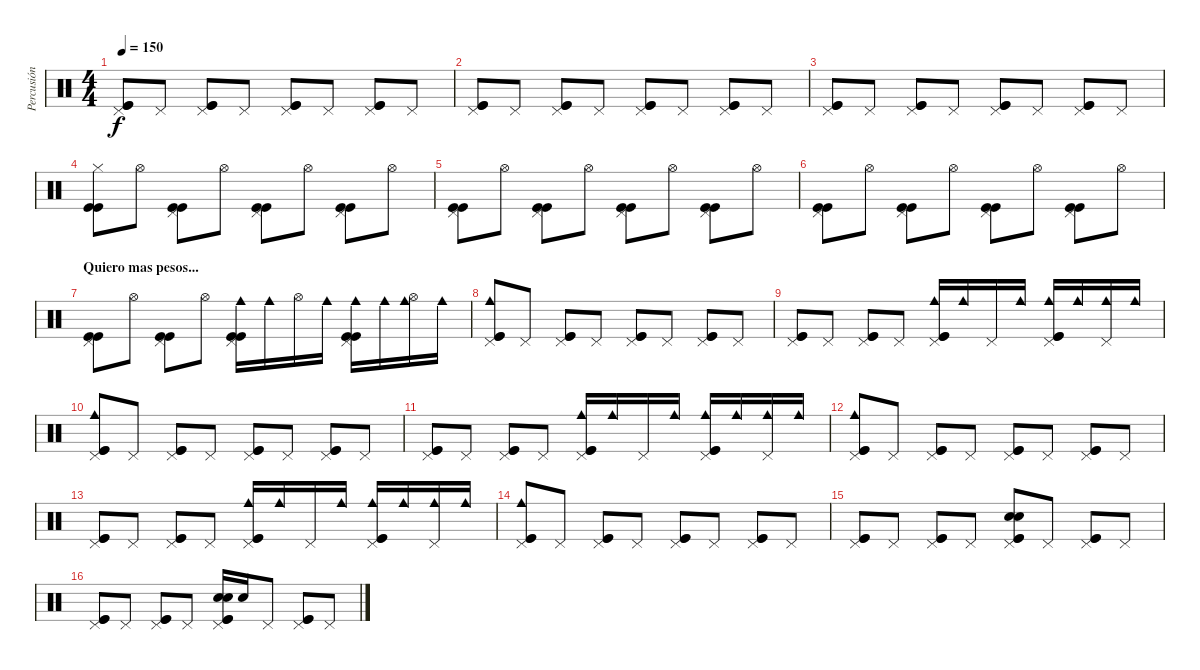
\track ("Percusión" "Percusión") {instrument percussion}
\staff {score}
\articulation defaults
\ts (4 4)
\tempo 150
\clef neutral
\ks c
("Pedal Hi-Hat (hit)" "Kick (hit)" "Kick (hit)").8{dy f} "Pedal Hi-Hat (hit)".8 ("Pedal Hi-Hat (hit)" "Kick (hit)" "Kick (hit)").8 "Pedal Hi-Hat (hit)".8 ("Pedal Hi-Hat (hit)" "Kick (hit)" "Kick (hit)").8 "Pedal Hi-Hat (hit)".8 ("Pedal Hi-Hat (hit)" "Kick (hit)" "Kick (hit)").8 "Pedal Hi-Hat (hit)".8 |
("Pedal Hi-Hat (hit)" "Kick (hit)" "Kick (hit)").8 "Pedal Hi-Hat (hit)".8 ("Pedal Hi-Hat (hit)" "Kick (hit)" "Kick (hit)").8 "Pedal Hi-Hat (hit)".8 ("Pedal Hi-Hat (hit)" "Kick (hit)" "Kick (hit)").8 "Pedal Hi-Hat (hit)".8 ("Pedal Hi-Hat (hit)" "Kick (hit)" "Kick (hit)").8 "Pedal Hi-Hat (hit)".8 |
("Pedal Hi-Hat (hit)" "Kick (hit)" "Kick (hit)").8 "Pedal Hi-Hat (hit)".8 ("Pedal Hi-Hat (hit)" "Kick (hit)" "Kick (hit)").8 "Pedal Hi-Hat (hit)".8 ("Pedal Hi-Hat (hit)" "Kick (hit)" "Kick (hit)").8 "Pedal Hi-Hat (hit)".8 ("Pedal Hi-Hat (hit)" "Kick (hit)" "Kick (hit)").8 "Pedal Hi-Hat (hit)".8 |
("Hi-Hat (closed)" "Kick (hit)" "Kick (hit)").8 "Hi-Hat (open)".8 ("Pedal Hi-Hat (hit)" "Kick (hit)" "Kick (hit)").8 "Hi-Hat (open)".8 ("Pedal Hi-Hat (hit)" "Kick (hit)" "Kick (hit)").8 "Hi-Hat (open)".8 ("Pedal Hi-Hat (hit)" "Kick (hit)" "Kick (hit)").8 "Hi-Hat (open)".8 |
("Pedal Hi-Hat (hit)" "Kick (hit)" "Kick (hit)").8 "Hi-Hat (open)".8 ("Pedal Hi-Hat (hit)" "Kick (hit)" "Kick (hit)").8 "Hi-Hat (open)".8 ("Pedal Hi-Hat (hit)" "Kick (hit)" "Kick (hit)").8 "Hi-Hat (open)".8 ("Pedal Hi-Hat (hit)" "Kick (hit)" "Kick (hit)").8 "Hi-Hat (open)".8 |
("Pedal Hi-Hat (hit)" "Kick (hit)" "Kick (hit)").8 "Hi-Hat (open)".8 ("Pedal Hi-Hat (hit)" "Kick (hit)" "Kick (hit)").8 "Hi-Hat (open)".8 ("Pedal Hi-Hat (hit)" "Kick (hit)" "Kick (hit)").8 "Hi-Hat (open)".8 ("Pedal Hi-Hat (hit)" "Kick (hit)" "Kick (hit)").8 "Hi-Hat (open)".8 |
\section ("" "Quiero mas pesos...")
("Pedal Hi-Hat (hit)" "Kick (hit)" "Kick (hit)").8 "Hi-Hat (open)".8 ("Pedal Hi-Hat (hit)" "Kick (hit)" "Kick (hit)").8 "Hi-Hat (open)".8 ("Pedal Hi-Hat (hit)" "Cowbell medium (hit)" "Kick (hit)" "Kick (hit)").16 "Cowbell medium (hit)".16 "Hi-Hat (open)".16 "Cowbell medium (hit)".16 ("Pedal Hi-Hat (hit)" "Cowbell medium (hit)" "Kick (hit)" "Kick (hit)").16 "Cowbell medium (hit)".16 ("Hi-Hat (open)" "Cowbell medium (hit)").16 "Cowbell medium (hit)".16 |
("Pedal Hi-Hat (hit)" "Cowbell medium (hit)" "Kick (hit)" "Kick (hit)").8 "Pedal Hi-Hat (hit)".8 ("Pedal Hi-Hat (hit)" "Kick (hit)" "Kick (hit)").8 "Pedal Hi-Hat (hit)".8 ("Pedal Hi-Hat (hit)" "Kick (hit)" "Kick (hit)").8 "Pedal Hi-Hat (hit)".8 ("Pedal Hi-Hat (hit)" "Kick (hit)" "Kick (hit)").8 "Pedal Hi-Hat (hit)".8 |
("Pedal Hi-Hat (hit)" "Kick (hit)" "Kick (hit)").8 "Pedal Hi-Hat (hit)".8 ("Pedal Hi-Hat (hit)" "Kick (hit)" "Kick (hit)").8 "Pedal Hi-Hat (hit)".8 ("Pedal Hi-Hat (hit)" "Cowbell medium (hit)" "Kick (hit)" "Kick (hit)").16 "Cowbell medium (hit)".16 "Pedal Hi-Hat (hit)".16 "Cowbell medium (hit)".16 ("Pedal Hi-Hat (hit)" "Cowbell medium (hit)" "Kick (hit)" "Kick (hit)").16 "Cowbell medium (hit)".16 ("Pedal Hi-Hat (hit)" "Cowbell medium (hit)").16 "Cowbell medium (hit)".16 |
("Pedal Hi-Hat (hit)" "Cowbell medium (hit)" "Kick (hit)" "Kick (hit)").8 "Pedal Hi-Hat (hit)".8 ("Pedal Hi-Hat (hit)" "Kick (hit)" "Kick (hit)").8 "Pedal Hi-Hat (hit)".8 ("Pedal Hi-Hat (hit)" "Kick (hit)" "Kick (hit)").8 "Pedal Hi-Hat (hit)".8 ("Pedal Hi-Hat (hit)" "Kick (hit)" "Kick (hit)").8 "Pedal Hi-Hat (hit)".8 |
("Pedal Hi-Hat (hit)" "Kick (hit)" "Kick (hit)").8 "Pedal Hi-Hat (hit)".8 ("Pedal Hi-Hat (hit)" "Kick (hit)" "Kick (hit)").8 "Pedal Hi-Hat (hit)".8 ("Pedal Hi-Hat (hit)" "Cowbell medium (hit)" "Kick (hit)" "Kick (hit)").16 "Cowbell medium (hit)".16 "Pedal Hi-Hat (hit)".16 "Cowbell medium (hit)".16 ("Pedal Hi-Hat (hit)" "Cowbell medium (hit)" "Kick (hit)" "Kick (hit)").16 "Cowbell medium (hit)".16 ("Pedal Hi-Hat (hit)" "Cowbell medium (hit)").16 "Cowbell medium (hit)".16 |
("Pedal Hi-Hat (hit)" "Cowbell medium (hit)" "Kick (hit)" "Kick (hit)").8 "Pedal Hi-Hat (hit)".8 ("Pedal Hi-Hat (hit)" "Kick (hit)" "Kick (hit)").8 "Pedal Hi-Hat (hit)".8 ("Pedal Hi-Hat (hit)" "Kick (hit)" "Kick (hit)").8 "Pedal Hi-Hat (hit)".8 ("Pedal Hi-Hat (hit)" "Kick (hit)" "Kick (hit)").8 "Pedal Hi-Hat (hit)".8 |
("Pedal Hi-Hat (hit)" "Kick (hit)" "Kick (hit)").8 "Pedal Hi-Hat (hit)".8 ("Pedal Hi-Hat (hit)" "Kick (hit)" "Kick (hit)").8 "Pedal Hi-Hat (hit)".8 ("Pedal Hi-Hat (hit)" "Cowbell medium (hit)" "Kick (hit)" "Kick (hit)").16 "Cowbell medium (hit)".16 "Pedal Hi-Hat (hit)".16 "Cowbell medium (hit)".16 ("Pedal Hi-Hat (hit)" "Cowbell medium (hit)" "Kick (hit)" "Kick (hit)").16 "Cowbell medium (hit)".16 ("Pedal Hi-Hat (hit)" "Cowbell medium (hit)").16 "Cowbell medium (hit)".16 |
("Pedal Hi-Hat (hit)" "Cowbell medium (hit)" "Kick (hit)" "Kick (hit)").8 "Pedal Hi-Hat (hit)".8 ("Pedal Hi-Hat (hit)" "Kick (hit)" "Kick (hit)").8 "Pedal Hi-Hat (hit)".8 ("Pedal Hi-Hat (hit)" "Kick (hit)" "Kick (hit)").8 "Pedal Hi-Hat (hit)".8 ("Pedal Hi-Hat (hit)" "Kick (hit)" "Kick (hit)").8 "Pedal Hi-Hat (hit)".8 |
("Pedal Hi-Hat (hit)" "Kick (hit)" "Kick (hit)").8 "Pedal Hi-Hat (hit)".8 ("Pedal Hi-Hat (hit)" "Kick (hit)" "Kick (hit)").8 "Pedal Hi-Hat (hit)".8 ("Pedal Hi-Hat (hit)" "Kick (hit)" "Kick (hit)" "Snare (hit) 2" "Snare (hit) 2").8 "Pedal Hi-Hat (hit)".8 ("Pedal Hi-Hat (hit)" "Kick (hit)" "Kick (hit)").8 "Pedal Hi-Hat (hit)".8 |
("Pedal Hi-Hat (hit)" "Kick (hit)" "Kick (hit)").8 "Pedal Hi-Hat (hit)".8 ("Pedal Hi-Hat (hit)" "Kick (hit)" "Kick (hit)").8 "Pedal Hi-Hat (hit)".8 ("Pedal Hi-Hat (hit)" "Kick (hit)" "Kick (hit)" "Snare (hit) 2" "Snare (hit) 2").16 "Snare (hit) 2".16 "Pedal Hi-Hat (hit)".8 ("Pedal Hi-Hat (hit)" "Kick (hit)" "Kick (hit)").8 "Pedal Hi-Hat (hit)".8
